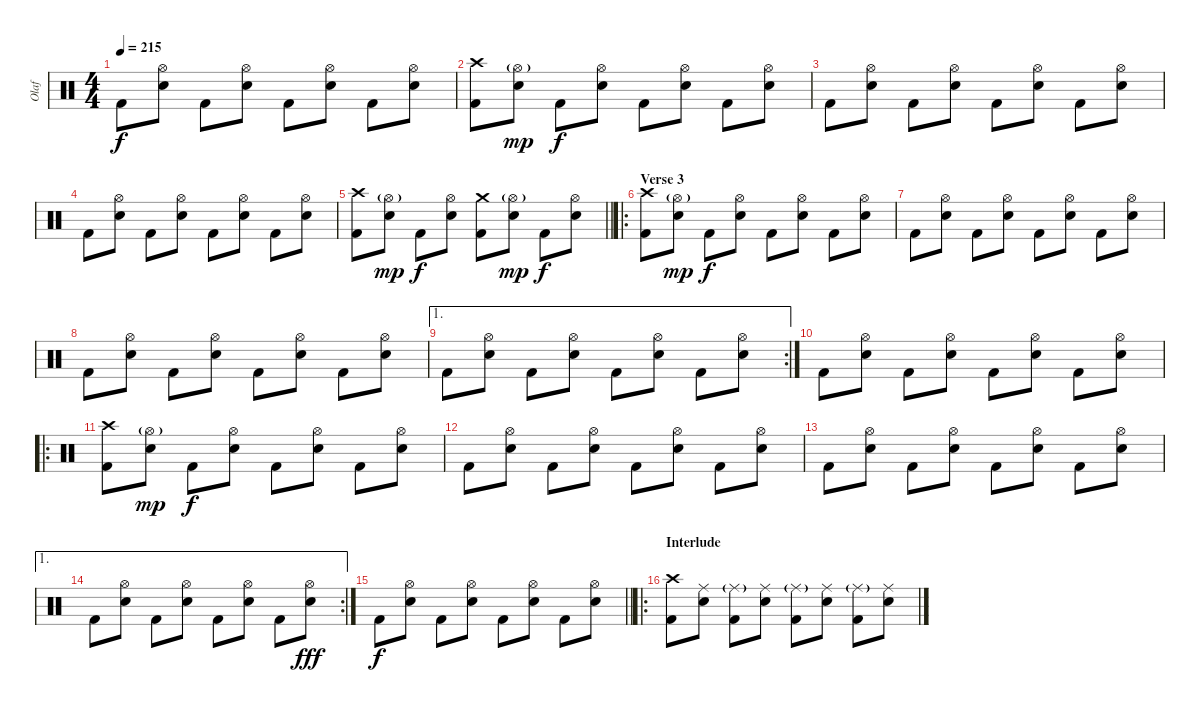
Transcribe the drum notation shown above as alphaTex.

\track ("Olaf" "Olaf") {instrument percussion}
\staff {score}
\articulation defaults
\ts (4 4)
\tempo 215
\clef neutral
\ks c "Kick (hit) 2".8{dy f}
("Hi-Hat (open)" "Electric Snare (hit)").8 "Kick (hit) 2".8 ("Hi-Hat (open)" "Electric Snare (hit)").8 "Kick (hit) 2".8 ("Hi-Hat (open)" "Electric Snare (hit)").8 "Kick (hit) 2".8 ("Hi-Hat (open)" "Electric Snare (hit)").8 |
("Crash high (hit)" "Kick (hit) 2").8 ("Hi-Hat (open)"{g} "Electric Snare (hit)").8{dy mp} "Kick (hit) 2".8{dy f} ("Hi-Hat (open)" "Electric Snare (hit)").8 "Kick (hit) 2".8 ("Hi-Hat (open)" "Electric Snare (hit)").8 "Kick (hit) 2".8 ("Hi-Hat (open)" "Electric Snare (hit)").8 |
"Kick (hit) 2".8 ("Hi-Hat (open)" "Electric Snare (hit)").8 "Kick (hit) 2".8 ("Hi-Hat (open)" "Electric Snare (hit)").8 "Kick (hit) 2".8 ("Hi-Hat (open)" "Electric Snare (hit)").8 "Kick (hit) 2".8 ("Hi-Hat (open)" "Electric Snare (hit)").8 |
"Kick (hit) 2".8 ("Hi-Hat (open)" "Electric Snare (hit)").8 "Kick (hit) 2".8 ("Hi-Hat (open)" "Electric Snare (hit)").8 "Kick (hit) 2".8 ("Hi-Hat (open)" "Electric Snare (hit)").8 "Kick (hit) 2".8 ("Hi-Hat (open)" "Electric Snare (hit)").8 |
\barLineRight lightlight
("Crash high (hit)" "Kick (hit) 2").8 ("Hi-Hat (open)"{g} "Electric Snare (hit)").8{dy mp} "Kick (hit) 2".8{dy f} ("Hi-Hat (open)" "Electric Snare (hit)").8 ("Crash medium (hit)" "Kick (hit) 2").8 ("Hi-Hat (open)"{g} "Electric Snare (hit)").8{dy mp} "Kick (hit) 2".8{dy f} ("Hi-Hat (open)" "Electric Snare (hit)").8 |
\ro
\section ("" "Verse 3")
("Crash high (hit)" "Kick (hit) 2").8 ("Hi-Hat (open)"{g} "Electric Snare (hit)").8{dy mp} "Kick (hit) 2".8{dy f} ("Hi-Hat (open)" "Electric Snare (hit)").8 "Kick (hit) 2".8 ("Hi-Hat (open)" "Electric Snare (hit)").8 "Kick (hit) 2".8 ("Hi-Hat (open)" "Electric Snare (hit)").8 |
"Kick (hit) 2".8 ("Hi-Hat (open)" "Electric Snare (hit)").8 "Kick (hit) 2".8 ("Hi-Hat (open)" "Electric Snare (hit)").8 "Kick (hit) 2".8 ("Hi-Hat (open)" "Electric Snare (hit)").8 "Kick (hit) 2".8 ("Hi-Hat (open)" "Electric Snare (hit)").8 |
"Kick (hit) 2".8 ("Hi-Hat (open)" "Electric Snare (hit)").8 "Kick (hit) 2".8 ("Hi-Hat (open)" "Electric Snare (hit)").8 "Kick (hit) 2".8 ("Hi-Hat (open)" "Electric Snare (hit)").8 "Kick (hit) 2".8 ("Hi-Hat (open)" "Electric Snare (hit)").8 |
\ae 1
\rc 2 "Kick (hit) 2".8
("Hi-Hat (open)" "Electric Snare (hit)").8 "Kick (hit) 2".8 ("Hi-Hat (open)" "Electric Snare (hit)").8 "Kick (hit) 2".8 ("Hi-Hat (open)" "Electric Snare (hit)").8 "Kick (hit) 2".8 ("Hi-Hat (open)" "Electric Snare (hit)").8 |
"Kick (hit) 2".8 ("Hi-Hat (open)" "Electric Snare (hit)").8 "Kick (hit) 2".8 ("Hi-Hat (open)" "Electric Snare (hit)").8 "Kick (hit) 2".8 ("Hi-Hat (open)" "Electric Snare (hit)").8 "Kick (hit) 2".8 ("Hi-Hat (open)" "Electric Snare (hit)").8 |
\ro
("Crash high (hit)" "Kick (hit) 2").8 ("Hi-Hat (open)"{g} "Electric Snare (hit)").8{dy mp} "Kick (hit) 2".8{dy f} ("Hi-Hat (open)" "Electric Snare (hit)").8 "Kick (hit) 2".8 ("Hi-Hat (open)" "Electric Snare (hit)").8 "Kick (hit) 2".8 ("Hi-Hat (open)" "Electric Snare (hit)").8 |
"Kick (hit) 2".8 ("Hi-Hat (open)" "Electric Snare (hit)").8 "Kick (hit) 2".8 ("Hi-Hat (open)" "Electric Snare (hit)").8 "Kick (hit) 2".8 ("Hi-Hat (open)" "Electric Snare (hit)").8 "Kick (hit) 2".8 ("Hi-Hat (open)" "Electric Snare (hit)").8 |
"Kick (hit) 2".8 ("Hi-Hat (open)" "Electric Snare (hit)").8 "Kick (hit) 2".8 ("Hi-Hat (open)" "Electric Snare (hit)").8 "Kick (hit) 2".8 ("Hi-Hat (open)" "Electric Snare (hit)").8 "Kick (hit) 2".8 ("Hi-Hat (open)" "Electric Snare (hit)").8 |
\ae 1
\rc 2 "Kick (hit) 2".8
("Hi-Hat (open)" "Electric Snare (hit)").8 "Kick (hit) 2".8 ("Hi-Hat (open)" "Electric Snare (hit)").8 "Kick (hit) 2".8 ("Hi-Hat (open)" "Electric Snare (hit)").8 "Kick (hit) 2".8 ("Hi-Hat (open)" "Electric Snare (hit)").8{dy fff} |
\barLineRight lightlight "Kick (hit) 2".8{dy f}
("Hi-Hat (open)" "Electric Snare (hit)").8 "Kick (hit) 2".8 ("Hi-Hat (open)" "Electric Snare (hit)").8 "Kick (hit) 2".8 ("Hi-Hat (open)" "Electric Snare (hit)").8 "Kick (hit) 2".8 ("Hi-Hat (open)" "Electric Snare (hit)").8 |
\ro
\section ("" "Interlude")
("Crash high (hit)" "Kick (hit) 2").8 ("Ride (middle)" "Electric Snare (hit)").8 ("Ride (middle)"{g} "Kick (hit) 2").8 ("Ride (middle)" "Electric Snare (hit)").8 ("Ride (middle)"{g} "Kick (hit) 2").8 ("Ride (middle)" "Electric Snare (hit)").8 ("Ride (middle)"{g} "Kick (hit) 2").8 ("Ride (middle)" "Electric Snare (hit)").8
